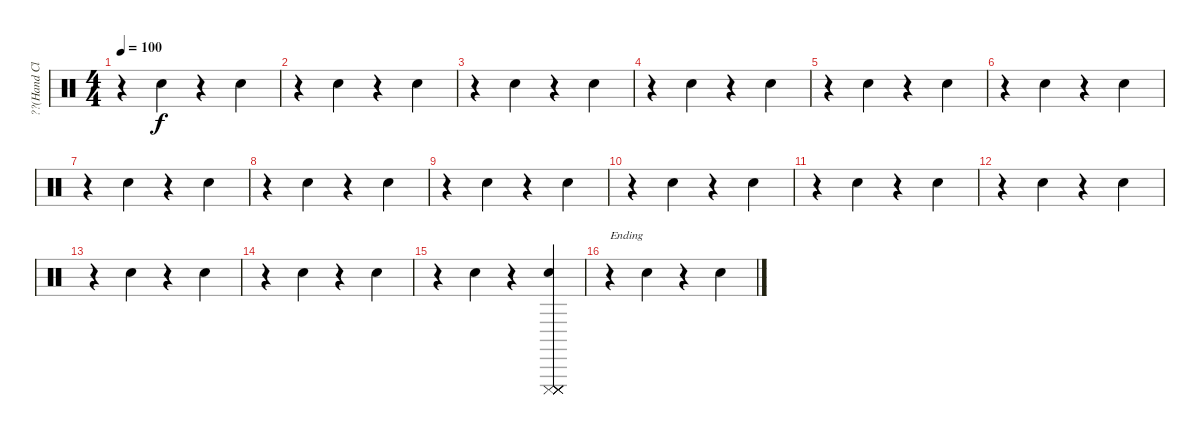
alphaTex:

\track ("??(Hand Clap)" "??(Hand Cl") {instrument percussion}
\staff {score}
\articulation defaults
\ts (4 4)
\tempo 100
\clef neutral
\ks c
r.4{dy f} "Hand Clap (hit)".4 r.4 "Hand Clap (hit)".4 |
r.4 "Hand Clap (hit)".4 r.4 "Hand Clap (hit)".4 |
r.4 "Hand Clap (hit)".4 r.4 "Hand Clap (hit)".4 |
r.4 "Hand Clap (hit)".4 r.4 "Hand Clap (hit)".4 |
r.4 "Hand Clap (hit)".4 r.4 "Hand Clap (hit)".4 |
r.4 "Hand Clap (hit)".4 r.4 "Hand Clap (hit)".4 |
r.4 "Hand Clap (hit)".4 r.4 "Hand Clap (hit)".4 |
r.4 "Hand Clap (hit)".4 r.4 "Hand Clap (hit)".4 |
r.4 "Hand Clap (hit)".4 r.4 "Hand Clap (hit)".4 |
r.4 "Hand Clap (hit)".4 r.4 "Hand Clap (hit)".4 |
r.4 "Hand Clap (hit)".4 r.4 "Hand Clap (hit)".4 |
r.4 "Hand Clap (hit)".4 r.4 "Hand Clap (hit)".4 |
r.4 "Hand Clap (hit)".4 r.4 "Hand Clap (hit)".4 |
r.4 "Hand Clap (hit)".4 r.4 "Hand Clap (hit)".4 |
r.4 "Hand Clap (hit)".4 r.4 ("Hand Clap (hit)" "Cuica (mute)" "Cuica (mute)" "Cuica (mute)" "Cuica (mute)" "Cuica (mute)").4 |
r.4{txt "Ending"} "Hand Clap (hit)".4 r.4 "Hand Clap (hit)".4
